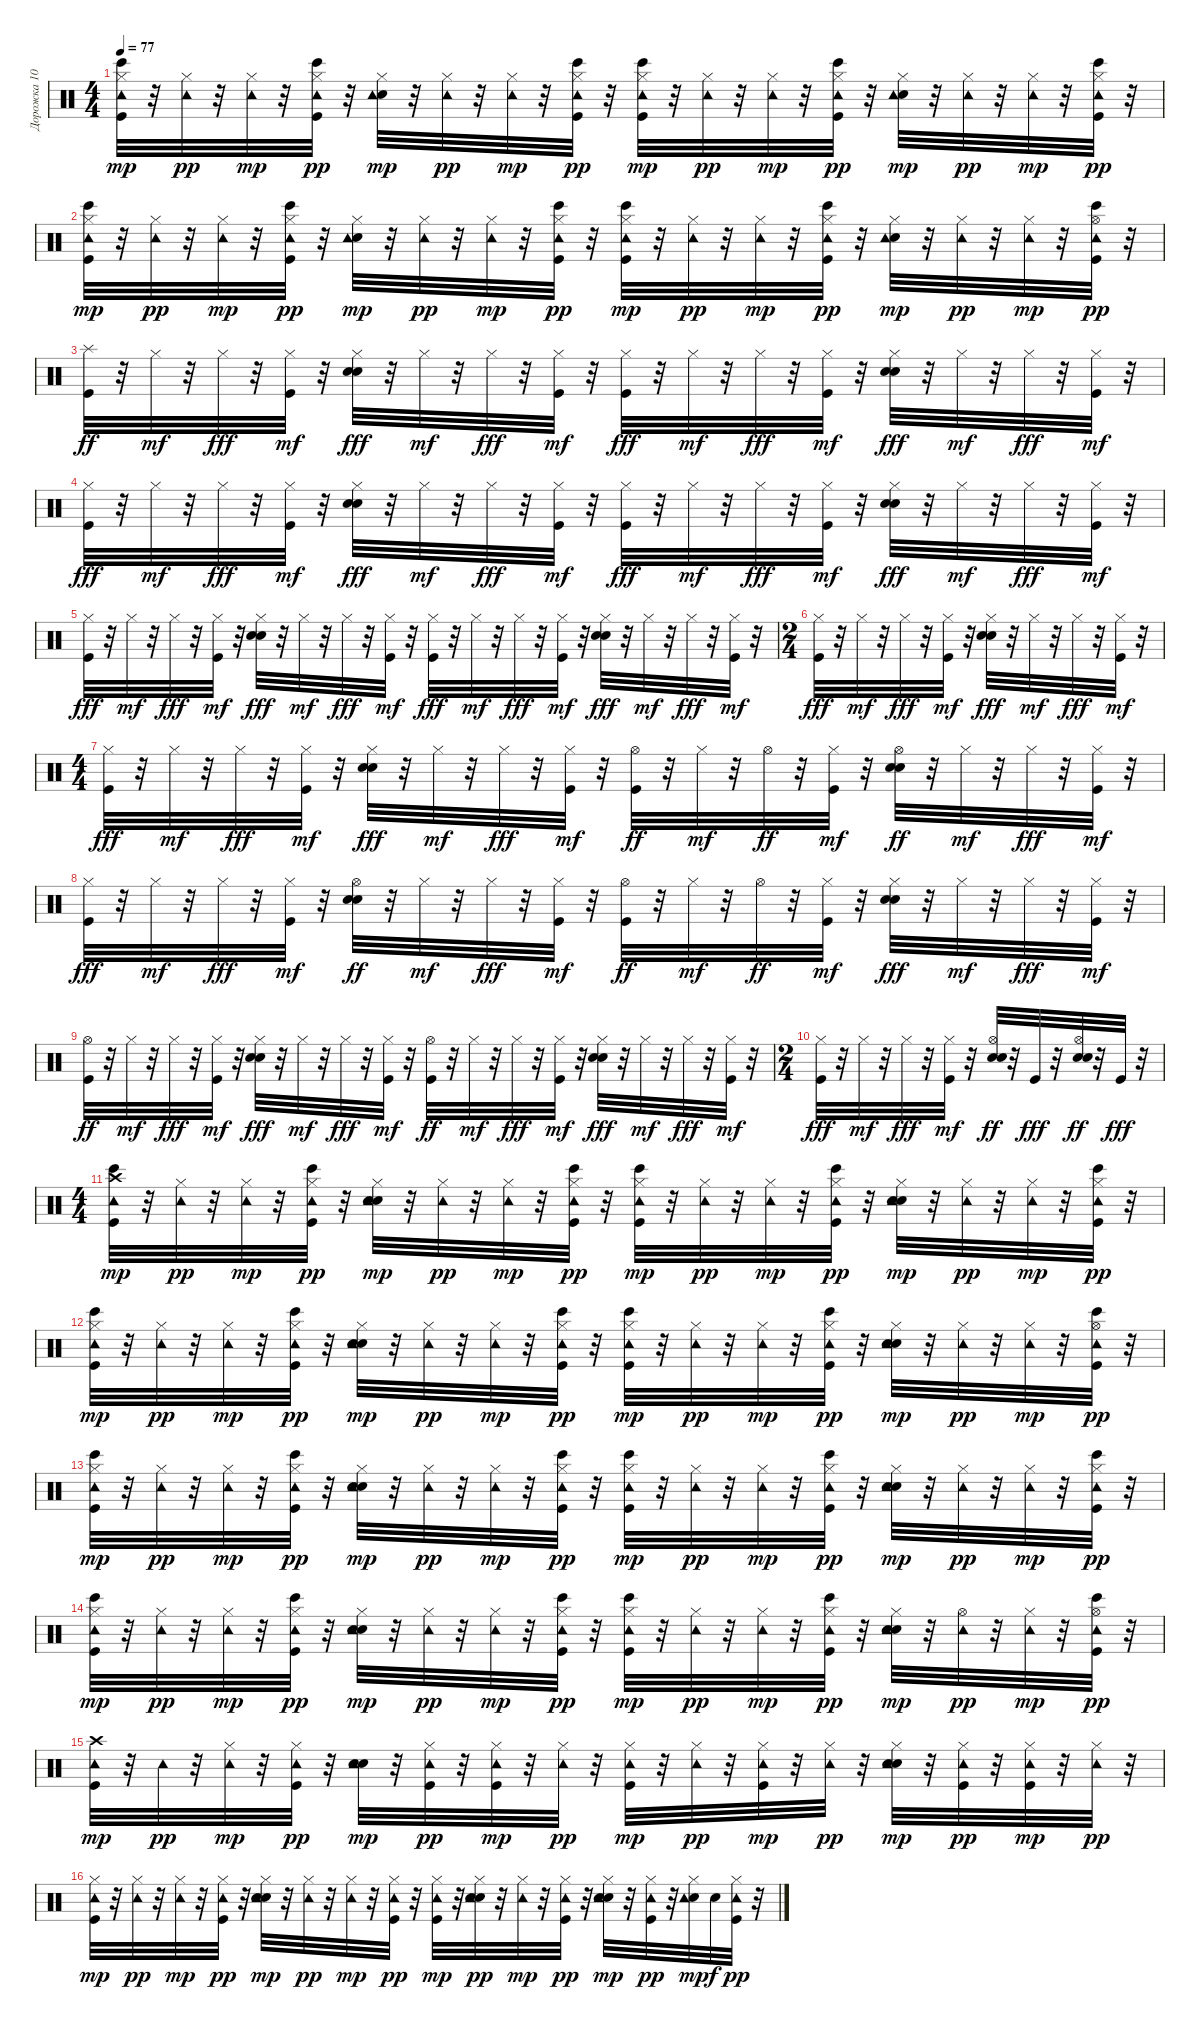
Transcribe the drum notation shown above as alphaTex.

\track ("Дорожка 10" "Дорожка 10") {instrument percussion}
\staff {score}
\articulation defaults
\ts (4 4)
\tempo 77
\clef neutral
\ks c
("Bongo High (hit)" "Kick (hit)" "Hi-Hat (closed)" "Tambourine (hit)").32{dy mp} r.32 ("Hi-Hat (closed)" "Tambourine (hit)").32{dy pp} r.32 ("Hi-Hat (closed)" "Tambourine (hit)").32{dy mp} r.32 ("Bongo High (hit)" "Kick (hit)" "Hi-Hat (closed)" "Tambourine (hit)").32{dy pp} r.32 ("Snare (hit) 2" "Hi-Hat (closed)" "Tambourine (hit)").32{dy mp} r.32 ("Hi-Hat (closed)" "Tambourine (hit)").32{dy pp} r.32 ("Hi-Hat (closed)" "Tambourine (hit)").32{dy mp} r.32 ("Bongo High (hit)" "Kick (hit)" "Hi-Hat (closed)" "Tambourine (hit)").32{dy pp} r.32 ("Bongo High (hit)" "Kick (hit)" "Hi-Hat (closed)" "Tambourine (hit)").32{dy mp} r.32 ("Hi-Hat (closed)" "Tambourine (hit)").32{dy pp} r.32 ("Hi-Hat (closed)" "Tambourine (hit)").32{dy mp} r.32 ("Bongo High (hit)" "Kick (hit)" "Hi-Hat (closed)" "Tambourine (hit)").32{dy pp} r.32 ("Snare (hit) 2" "Hi-Hat (closed)" "Tambourine (hit)").32{dy mp} r.32 ("Hi-Hat (closed)" "Tambourine (hit)").32{dy pp} r.32 ("Hi-Hat (closed)" "Tambourine (hit)").32{dy mp} r.32 ("Bongo High (hit)" "Kick (hit)" "Hi-Hat (closed)" "Tambourine (hit)").32{dy pp} r.32 |
("Bongo High (hit)" "Kick (hit)" "Hi-Hat (closed)" "Tambourine (hit)").32{dy mp} r.32 ("Hi-Hat (closed)" "Tambourine (hit)").32{dy pp} r.32 ("Hi-Hat (closed)" "Tambourine (hit)").32{dy mp} r.32 ("Bongo High (hit)" "Kick (hit)" "Hi-Hat (closed)" "Tambourine (hit)").32{dy pp} r.32 ("Snare (hit) 2" "Hi-Hat (closed)" "Tambourine (hit)").32{dy mp} r.32 ("Hi-Hat (closed)" "Tambourine (hit)").32{dy pp} r.32 ("Hi-Hat (closed)" "Tambourine (hit)").32{dy mp} r.32 ("Bongo High (hit)" "Kick (hit)" "Hi-Hat (closed)" "Tambourine (hit)").32{dy pp} r.32 ("Bongo High (hit)" "Kick (hit)" "Hi-Hat (closed)" "Tambourine (hit)").32{dy mp} r.32 ("Hi-Hat (closed)" "Tambourine (hit)").32{dy pp} r.32 ("Hi-Hat (closed)" "Tambourine (hit)").32{dy mp} r.32 ("Bongo High (hit)" "Kick (hit)" "Hi-Hat (closed)" "Tambourine (hit)").32{dy pp} r.32 ("Snare (hit) 2" "Hi-Hat (closed)" "Tambourine (hit)").32{dy mp} r.32 ("Hi-Hat (closed)" "Tambourine (hit)").32{dy pp} r.32 ("Hi-Hat (closed)" "Tambourine (hit)").32{dy mp} r.32 ("Bongo High (hit)" "Kick (hit)" "Hi-Hat (open)" "Tambourine (hit)").32{dy pp} r.32 |
("Kick (hit)" "Splash (hit)").32{dy ff} r.32 "Hi-Hat (closed)".32{dy mf} r.32 "Hi-Hat (closed)".32{dy fff} r.32 ("Kick (hit)" "Hi-Hat (closed)").32{dy mf} r.32 ("Snare (hit) 2" "Hand Clap (hit)" "Hi-Hat (closed)").32{dy fff} r.32 "Hi-Hat (closed)".32{dy mf} r.32 "Hi-Hat (closed)".32{dy fff} r.32 ("Kick (hit)" "Hi-Hat (closed)").32{dy mf} r.32 ("Kick (hit)" "Hi-Hat (closed)").32{dy fff} r.32 "Hi-Hat (closed)".32{dy mf} r.32 "Hi-Hat (closed)".32{dy fff} r.32 ("Kick (hit)" "Hi-Hat (closed)").32{dy mf} r.32 ("Snare (hit) 2" "Hand Clap (hit)" "Hi-Hat (closed)").32{dy fff} r.32 "Hi-Hat (closed)".32{dy mf} r.32 "Hi-Hat (closed)".32{dy fff} r.32 ("Kick (hit)" "Hi-Hat (closed)").32{dy mf} r.32 |
("Kick (hit)" "Hi-Hat (closed)").32{dy fff} r.32 "Hi-Hat (closed)".32{dy mf} r.32 "Hi-Hat (closed)".32{dy fff} r.32 ("Kick (hit)" "Hi-Hat (closed)").32{dy mf} r.32 ("Snare (hit) 2" "Hand Clap (hit)" "Hi-Hat (closed)").32{dy fff} r.32 "Hi-Hat (closed)".32{dy mf} r.32 "Hi-Hat (closed)".32{dy fff} r.32 ("Kick (hit)" "Hi-Hat (closed)").32{dy mf} r.32 ("Kick (hit)" "Hi-Hat (closed)").32{dy fff} r.32 "Hi-Hat (closed)".32{dy mf} r.32 "Hi-Hat (closed)".32{dy fff} r.32 ("Kick (hit)" "Hi-Hat (closed)").32{dy mf} r.32 ("Snare (hit) 2" "Hand Clap (hit)" "Hi-Hat (closed)").32{dy fff} r.32 "Hi-Hat (closed)".32{dy mf} r.32 "Hi-Hat (closed)".32{dy fff} r.32 ("Kick (hit)" "Hi-Hat (closed)").32{dy mf} r.32 |
("Kick (hit)" "Hi-Hat (closed)").32{dy fff} r.32 "Hi-Hat (closed)".32{dy mf} r.32 "Hi-Hat (closed)".32{dy fff} r.32 ("Kick (hit)" "Hi-Hat (closed)").32{dy mf} r.32 ("Snare (hit) 2" "Hand Clap (hit)" "Hi-Hat (closed)").32{dy fff} r.32 "Hi-Hat (closed)".32{dy mf} r.32 "Hi-Hat (closed)".32{dy fff} r.32 ("Kick (hit)" "Hi-Hat (closed)").32{dy mf} r.32 ("Kick (hit)" "Hi-Hat (closed)").32{dy fff} r.32 "Hi-Hat (closed)".32{dy mf} r.32 "Hi-Hat (closed)".32{dy fff} r.32 ("Kick (hit)" "Hi-Hat (closed)").32{dy mf} r.32 ("Snare (hit) 2" "Hand Clap (hit)" "Hi-Hat (closed)").32{dy fff} r.32 "Hi-Hat (closed)".32{dy mf} r.32 "Hi-Hat (closed)".32{dy fff} r.32 ("Kick (hit)" "Hi-Hat (closed)").32{dy mf} r.32 |
\ts (2 4)
("Kick (hit)" "Hi-Hat (closed)").32{dy fff} r.32 "Hi-Hat (closed)".32{dy mf} r.32 "Hi-Hat (closed)".32{dy fff} r.32 ("Kick (hit)" "Hi-Hat (closed)").32{dy mf} r.32 ("Snare (hit) 2" "Hand Clap (hit)" "Hi-Hat (closed)").32{dy fff} r.32 "Hi-Hat (closed)".32{dy mf} r.32 "Hi-Hat (closed)".32{dy fff} r.32 ("Kick (hit)" "Hi-Hat (closed)").32{dy mf} r.32 |
\ts (4 4)
("Kick (hit)" "Hi-Hat (closed)").32{dy fff} r.32 "Hi-Hat (closed)".32{dy mf} r.32 "Hi-Hat (closed)".32{dy fff} r.32 ("Kick (hit)" "Hi-Hat (closed)").32{dy mf} r.32 ("Snare (hit) 2" "Hand Clap (hit)" "Hi-Hat (closed)").32{dy fff} r.32 "Hi-Hat (closed)".32{dy mf} r.32 "Hi-Hat (closed)".32{dy fff} r.32 ("Kick (hit)" "Hi-Hat (closed)").32{dy mf} r.32 ("Kick (hit)" "Hi-Hat (open)").32{dy ff} r.32 "Hi-Hat (closed)".32{dy mf} r.32 "Hi-Hat (open)".32{dy ff} r.32 ("Kick (hit)" "Hi-Hat (closed)").32{dy mf} r.32 ("Snare (hit) 2" "Hand Clap (hit)" "Hi-Hat (open)").32{dy ff} r.32 "Hi-Hat (closed)".32{dy mf} r.32 "Hi-Hat (closed)".32{dy fff} r.32 ("Kick (hit)" "Hi-Hat (closed)").32{dy mf} r.32 |
("Kick (hit)" "Hi-Hat (closed)").32{dy fff} r.32 "Hi-Hat (closed)".32{dy mf} r.32 "Hi-Hat (closed)".32{dy fff} r.32 ("Kick (hit)" "Hi-Hat (closed)").32{dy mf} r.32 ("Snare (hit) 2" "Hand Clap (hit)" "Hi-Hat (open)").32{dy ff} r.32 "Hi-Hat (closed)".32{dy mf} r.32 "Hi-Hat (closed)".32{dy fff} r.32 ("Kick (hit)" "Hi-Hat (closed)").32{dy mf} r.32 ("Kick (hit)" "Hi-Hat (open)").32{dy ff} r.32 "Hi-Hat (closed)".32{dy mf} r.32 "Hi-Hat (open)".32{dy ff} r.32 ("Kick (hit)" "Hi-Hat (closed)").32{dy mf} r.32 ("Snare (hit) 2" "Hand Clap (hit)" "Hi-Hat (closed)").32{dy fff} r.32 "Hi-Hat (closed)".32{dy mf} r.32 "Hi-Hat (closed)".32{dy fff} r.32 ("Kick (hit)" "Hi-Hat (closed)").32{dy mf} r.32 |
("Kick (hit)" "Hi-Hat (open)").32{dy ff} r.32 "Hi-Hat (closed)".32{dy mf} r.32 "Hi-Hat (closed)".32{dy fff} r.32 ("Kick (hit)" "Hi-Hat (closed)").32{dy mf} r.32 ("Snare (hit) 2" "Hand Clap (hit)" "Hi-Hat (closed)").32{dy fff} r.32 "Hi-Hat (closed)".32{dy mf} r.32 "Hi-Hat (closed)".32{dy fff} r.32 ("Kick (hit)" "Hi-Hat (closed)").32{dy mf} r.32 ("Kick (hit)" "Hi-Hat (open)").32{dy ff} r.32 "Hi-Hat (closed)".32{dy mf} r.32 "Hi-Hat (closed)".32{dy fff} r.32 ("Kick (hit)" "Hi-Hat (closed)").32{dy mf} r.32 ("Snare (hit) 2" "Hand Clap (hit)" "Hi-Hat (closed)").32{dy fff} r.32 "Hi-Hat (closed)".32{dy mf} r.32 "Hi-Hat (closed)".32{dy fff} r.32 ("Kick (hit)" "Hi-Hat (closed)").32{dy mf} r.32 |
\ts (2 4)
("Kick (hit)" "Hi-Hat (closed)").32{dy fff} r.32 "Hi-Hat (closed)".32{dy mf} r.32 "Hi-Hat (closed)".32{dy fff} r.32 ("Kick (hit)" "Hi-Hat (closed)").32{dy mf} r.32 ("Snare (hit) 2" "Hand Clap (hit)" "Hi-Hat (open)").32{dy ff} r.32 "Kick (hit)".32{dy fff} r.32 ("Snare (hit) 2" "Hand Clap (hit)" "Hi-Hat (open)").32{dy ff} r.32 "Kick (hit)".32{dy fff} r.32 |
\ts (4 4)
("Bongo High (hit)" "Kick (hit)" "Crash high (hit)" "Tambourine (hit)").32{dy mp} r.32 ("Hi-Hat (closed)" "Tambourine (hit)").32{dy pp} r.32 ("Hi-Hat (closed)" "Tambourine (hit)").32{dy mp} r.32 ("Bongo High (hit)" "Kick (hit)" "Hi-Hat (closed)" "Tambourine (hit)").32{dy pp} r.32 ("Snare (hit) 2" "Hand Clap (hit)" "Hi-Hat (closed)" "Tambourine (hit)").32{dy mp} r.32 ("Hi-Hat (closed)" "Tambourine (hit)").32{dy pp} r.32 ("Hi-Hat (closed)" "Tambourine (hit)").32{dy mp} r.32 ("Bongo High (hit)" "Kick (hit)" "Hi-Hat (closed)" "Tambourine (hit)").32{dy pp} r.32 ("Bongo High (hit)" "Kick (hit)" "Hi-Hat (closed)" "Tambourine (hit)").32{dy mp} r.32 ("Hi-Hat (closed)" "Tambourine (hit)").32{dy pp} r.32 ("Hi-Hat (closed)" "Tambourine (hit)").32{dy mp} r.32 ("Bongo High (hit)" "Kick (hit)" "Hi-Hat (closed)" "Tambourine (hit)").32{dy pp} r.32 ("Snare (hit) 2" "Hand Clap (hit)" "Hi-Hat (closed)" "Tambourine (hit)").32{dy mp} r.32 ("Hi-Hat (closed)" "Tambourine (hit)").32{dy pp} r.32 ("Hi-Hat (closed)" "Tambourine (hit)").32{dy mp} r.32 ("Bongo High (hit)" "Kick (hit)" "Hi-Hat (closed)" "Tambourine (hit)").32{dy pp} r.32 |
("Bongo High (hit)" "Kick (hit)" "Hi-Hat (closed)" "Tambourine (hit)").32{dy mp} r.32 ("Hi-Hat (closed)" "Tambourine (hit)").32{dy pp} r.32 ("Hi-Hat (closed)" "Tambourine (hit)").32{dy mp} r.32 ("Bongo High (hit)" "Kick (hit)" "Hi-Hat (closed)" "Tambourine (hit)").32{dy pp} r.32 ("Snare (hit) 2" "Hand Clap (hit)" "Hi-Hat (closed)" "Tambourine (hit)").32{dy mp} r.32 ("Hi-Hat (closed)" "Tambourine (hit)").32{dy pp} r.32 ("Hi-Hat (closed)" "Tambourine (hit)").32{dy mp} r.32 ("Bongo High (hit)" "Kick (hit)" "Hi-Hat (closed)" "Tambourine (hit)").32{dy pp} r.32 ("Bongo High (hit)" "Kick (hit)" "Hi-Hat (closed)" "Tambourine (hit)").32{dy mp} r.32 ("Hi-Hat (closed)" "Tambourine (hit)").32{dy pp} r.32 ("Hi-Hat (closed)" "Tambourine (hit)").32{dy mp} r.32 ("Bongo High (hit)" "Kick (hit)" "Hi-Hat (closed)" "Tambourine (hit)").32{dy pp} r.32 ("Snare (hit) 2" "Hand Clap (hit)" "Hi-Hat (closed)" "Tambourine (hit)").32{dy mp} r.32 ("Hi-Hat (closed)" "Tambourine (hit)").32{dy pp} r.32 ("Hi-Hat (closed)" "Tambourine (hit)").32{dy mp} r.32 ("Bongo High (hit)" "Kick (hit)" "Hi-Hat (open)" "Tambourine (hit)").32{dy pp} r.32 |
("Bongo High (hit)" "Kick (hit)" "Hi-Hat (closed)" "Tambourine (hit)").32{dy mp} r.32 ("Hi-Hat (closed)" "Tambourine (hit)").32{dy pp} r.32 ("Hi-Hat (closed)" "Tambourine (hit)").32{dy mp} r.32 ("Bongo High (hit)" "Kick (hit)" "Hi-Hat (closed)" "Tambourine (hit)").32{dy pp} r.32 ("Snare (hit) 2" "Hand Clap (hit)" "Hi-Hat (closed)" "Tambourine (hit)").32{dy mp} r.32 ("Hi-Hat (closed)" "Tambourine (hit)").32{dy pp} r.32 ("Hi-Hat (closed)" "Tambourine (hit)").32{dy mp} r.32 ("Bongo High (hit)" "Kick (hit)" "Hi-Hat (closed)" "Tambourine (hit)").32{dy pp} r.32 ("Bongo High (hit)" "Kick (hit)" "Hi-Hat (closed)" "Tambourine (hit)").32{dy mp} r.32 ("Hi-Hat (closed)" "Tambourine (hit)").32{dy pp} r.32 ("Hi-Hat (closed)" "Tambourine (hit)").32{dy mp} r.32 ("Bongo High (hit)" "Kick (hit)" "Hi-Hat (closed)" "Tambourine (hit)").32{dy pp} r.32 ("Snare (hit) 2" "Hand Clap (hit)" "Hi-Hat (closed)" "Tambourine (hit)").32{dy mp} r.32 ("Hi-Hat (closed)" "Tambourine (hit)").32{dy pp} r.32 ("Hi-Hat (closed)" "Tambourine (hit)").32{dy mp} r.32 ("Bongo High (hit)" "Kick (hit)" "Hi-Hat (closed)" "Tambourine (hit)").32{dy pp} r.32 |
("Bongo High (hit)" "Kick (hit)" "Hi-Hat (closed)" "Tambourine (hit)").32{dy mp} r.32 ("Hi-Hat (closed)" "Tambourine (hit)").32{dy pp} r.32 ("Hi-Hat (closed)" "Tambourine (hit)").32{dy mp} r.32 ("Bongo High (hit)" "Kick (hit)" "Hi-Hat (closed)" "Tambourine (hit)").32{dy pp} r.32 ("Snare (hit) 2" "Hand Clap (hit)" "Hi-Hat (closed)" "Tambourine (hit)").32{dy mp} r.32 ("Hi-Hat (closed)" "Tambourine (hit)").32{dy pp} r.32 ("Hi-Hat (closed)" "Tambourine (hit)").32{dy mp} r.32 ("Bongo High (hit)" "Kick (hit)" "Hi-Hat (closed)" "Tambourine (hit)").32{dy pp} r.32 ("Bongo High (hit)" "Kick (hit)" "Hi-Hat (closed)" "Tambourine (hit)").32{dy mp} r.32 ("Hi-Hat (closed)" "Tambourine (hit)").32{dy pp} r.32 ("Hi-Hat (closed)" "Tambourine (hit)").32{dy mp} r.32 ("Bongo High (hit)" "Kick (hit)" "Hi-Hat (closed)" "Tambourine (hit)").32{dy pp} r.32 ("Snare (hit) 2" "Hand Clap (hit)" "Hi-Hat (closed)" "Tambourine (hit)").32{dy mp} r.32 ("Hi-Hat (open)" "Tambourine (hit)").32{dy pp} r.32 ("Hi-Hat (closed)" "Tambourine (hit)").32{dy mp} r.32 ("Bongo High (hit)" "Kick (hit)" "Hi-Hat (open)" "Tambourine (hit)").32{dy pp} r.32 |
("Kick (hit)" "Crash high (hit)" "Tambourine (hit)").32{dy mp} r.32 "Tambourine (hit)".32{dy pp} r.32 ("Hi-Hat (closed)" "Tambourine (hit)").32{dy mp} r.32 ("Kick (hit)" "Hi-Hat (closed)" "Tambourine (hit)").32{dy pp} r.32 ("Snare (hit) 2" "Hand Clap (hit)" "Tambourine (hit)").32{dy mp} r.32 ("Kick (hit)" "Hi-Hat (closed)" "Tambourine (hit)").32{dy pp} r.32 ("Kick (hit)" "Hi-Hat (closed)" "Tambourine (hit)").32{dy mp} r.32 ("Hi-Hat (closed)" "Tambourine (hit)").32{dy pp} r.32 ("Kick (hit)" "Hi-Hat (closed)" "Tambourine (hit)").32{dy mp} r.32 ("Hi-Hat (closed)" "Tambourine (hit)").32{dy pp} r.32 ("Kick (hit)" "Hi-Hat (closed)" "Tambourine (hit)").32{dy mp} r.32 ("Hi-Hat (closed)" "Tambourine (hit)").32{dy pp} r.32 ("Snare (hit) 2" "Hand Clap (hit)" "Hi-Hat (closed)" "Tambourine (hit)").32{dy mp} r.32 ("Kick (hit)" "Hi-Hat (closed)" "Tambourine (hit)").32{dy pp} r.32 ("Kick (hit)" "Hi-Hat (closed)" "Tambourine (hit)").32{dy mp} r.32 ("Hi-Hat (closed)" "Tambourine (hit)").32{dy pp} r.32 |
("Kick (hit)" "Hi-Hat (closed)" "Tambourine (hit)").32{dy mp} r.32 ("Hi-Hat (closed)" "Tambourine (hit)").32{dy pp} r.32 ("Hi-Hat (closed)" "Tambourine (hit)").32{dy mp} r.32 ("Kick (hit)" "Hi-Hat (closed)" "Tambourine (hit)").32{dy pp} r.32 ("Snare (hit) 2" "Hand Clap (hit)" "Hi-Hat (closed)" "Tambourine (hit)").32{dy mp} r.32 ("Hi-Hat (closed)" "Tambourine (hit)").32{dy pp} r.32 ("Hi-Hat (closed)" "Tambourine (hit)").32{dy mp} r.32 ("Kick (hit)" "Hi-Hat (closed)" "Tambourine (hit)").32{dy pp} r.32 ("Kick (hit)" "Hi-Hat (closed)" "Tambourine (hit)").32{dy mp} r.32 ("Snare (hit) 2" "Hand Clap (hit)" "Hi-Hat (closed)" "Tambourine (hit)").32{dy pp} r.32 ("Hi-Hat (closed)" "Tambourine (hit)").32{dy mp} r.32 ("Kick (hit)" "Hi-Hat (closed)" "Tambourine (hit)").32{dy pp} r.32 ("Snare (hit) 2" "Hand Clap (hit)" "Hi-Hat (closed)" "Tambourine (hit)").32{dy mp} r.32 ("Kick (hit)" "Hi-Hat (closed)" "Tambourine (hit)").32{dy pp} r.32 ("Snare (hit) 2" "Hi-Hat (closed)" "Tambourine (hit)").32{dy mp} "Snare (hit) 2".32{dy f} ("Kick (hit)" "Hi-Hat (closed)" "Tambourine (hit)").32{dy pp} r.32
